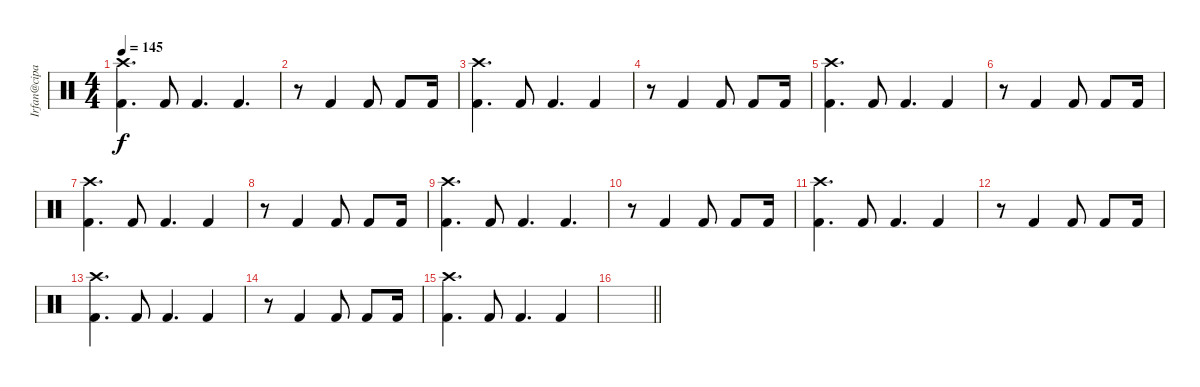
\track ("Irfan@cipan" "Irfan@cipa") {instrument percussion}
\staff {score}
\articulation defaults
\ts (4 4)
\tempo 145
\clef neutral
\ks c
("Crash high (hit)" "Kick (hit) 2").4{d dy f} "Kick (hit) 2".8 "Kick (hit) 2".4{d} "Kick (hit) 2".4{d} |
r.8 "Kick (hit) 2".4 "Kick (hit) 2".8 "Kick (hit) 2".8 "Kick (hit) 2".16 |
("Crash high (hit)" "Kick (hit) 2").4{d} "Kick (hit) 2".8 "Kick (hit) 2".4{d} "Kick (hit) 2".4 |
r.8 "Kick (hit) 2".4 "Kick (hit) 2".8 "Kick (hit) 2".8 "Kick (hit) 2".16 |
("Crash high (hit)" "Kick (hit) 2").4{d} "Kick (hit) 2".8 "Kick (hit) 2".4{d} "Kick (hit) 2".4 |
r.8 "Kick (hit) 2".4 "Kick (hit) 2".8 "Kick (hit) 2".8 "Kick (hit) 2".16 |
("Crash high (hit)" "Kick (hit) 2").4{d} "Kick (hit) 2".8 "Kick (hit) 2".4{d} "Kick (hit) 2".4 |
r.8 "Kick (hit) 2".4 "Kick (hit) 2".8 "Kick (hit) 2".8 "Kick (hit) 2".16 |
("Crash high (hit)" "Kick (hit) 2").4{d} "Kick (hit) 2".8 "Kick (hit) 2".4{d} "Kick (hit) 2".4{d} |
r.8 "Kick (hit) 2".4 "Kick (hit) 2".8 "Kick (hit) 2".8 "Kick (hit) 2".16 |
("Crash high (hit)" "Kick (hit) 2").4{d} "Kick (hit) 2".8 "Kick (hit) 2".4{d} "Kick (hit) 2".4 |
r.8 "Kick (hit) 2".4 "Kick (hit) 2".8 "Kick (hit) 2".8 "Kick (hit) 2".16 |
("Crash high (hit)" "Kick (hit) 2").4{d} "Kick (hit) 2".8 "Kick (hit) 2".4{d} "Kick (hit) 2".4 |
r.8 "Kick (hit) 2".4 "Kick (hit) 2".8 "Kick (hit) 2".8 "Kick (hit) 2".16 |
("Crash high (hit)" "Kick (hit) 2").4{d} "Kick (hit) 2".8 "Kick (hit) 2".4{d} "Kick (hit) 2".4 |
\barLineRight lightlight
